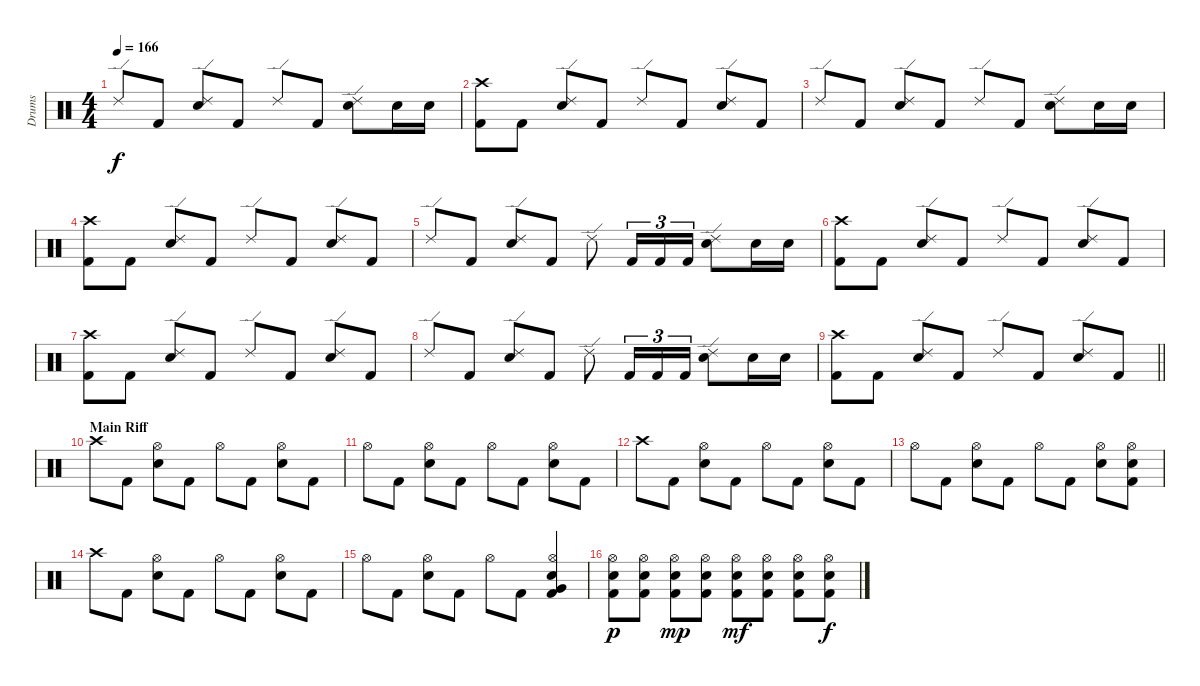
\track ("Drums" "Drums") {instrument percussion}
\staff {score}
\articulation defaults
\ts (4 4)
\tempo 166
\clef neutral
\ks c "Ride (edge) 2".8{dy f} "Kick (hit) 2".8
("Ride (edge) 2" "Electric Snare (hit)").8 "Kick (hit) 2".8 "Ride (edge) 2".8 "Kick (hit) 2".8 ("Ride (edge) 2" "Electric Snare (hit)").8 "Electric Snare (hit)".16 "Electric Snare (hit)".16 |
("Crash high (hit)" "Kick (hit) 2").8 "Kick (hit) 2".8 ("Ride (edge) 2" "Electric Snare (hit)").8 "Kick (hit) 2".8 "Ride (edge) 2".8 "Kick (hit) 2".8 ("Ride (edge) 2" "Electric Snare (hit)").8 "Kick (hit) 2".8 |
"Ride (edge) 2".8 "Kick (hit) 2".8 ("Ride (edge) 2" "Electric Snare (hit)").8 "Kick (hit) 2".8 "Ride (edge) 2".8 "Kick (hit) 2".8 ("Ride (edge) 2" "Electric Snare (hit)").8 "Electric Snare (hit)".16 "Electric Snare (hit)".16 |
("Crash high (hit)" "Kick (hit) 2").8 "Kick (hit) 2".8 ("Ride (edge) 2" "Electric Snare (hit)").8 "Kick (hit) 2".8 "Ride (edge) 2".8 "Kick (hit) 2".8 ("Ride (edge) 2" "Electric Snare (hit)").8 "Kick (hit) 2".8 |
"Ride (edge) 2".8 "Kick (hit) 2".8 ("Ride (edge) 2" "Electric Snare (hit)").8 "Kick (hit) 2".8 "Ride (edge) 2".8 "Kick (hit) 2".16{tu (3 2)} "Kick (hit) 2".16{tu (3 2)} "Kick (hit) 2".16{tu (3 2)} ("Ride (edge) 2" "Electric Snare (hit)").8 "Electric Snare (hit)".16 "Electric Snare (hit)".16 |
("Crash high (hit)" "Kick (hit) 2").8 "Kick (hit) 2".8 ("Ride (edge) 2" "Electric Snare (hit)").8 "Kick (hit) 2".8 "Ride (edge) 2".8 "Kick (hit) 2".8 ("Ride (edge) 2" "Electric Snare (hit)").8 "Kick (hit) 2".8 |
("Crash high (hit)" "Kick (hit) 2").8 "Kick (hit) 2".8 ("Ride (edge) 2" "Electric Snare (hit)").8 "Kick (hit) 2".8 "Ride (edge) 2".8 "Kick (hit) 2".8 ("Ride (edge) 2" "Electric Snare (hit)").8 "Kick (hit) 2".8 |
"Ride (edge) 2".8 "Kick (hit) 2".8 ("Ride (edge) 2" "Electric Snare (hit)").8 "Kick (hit) 2".8 "Ride (edge) 2".8 "Kick (hit) 2".16{tu (3 2)} "Kick (hit) 2".16{tu (3 2)} "Kick (hit) 2".16{tu (3 2)} ("Ride (edge) 2" "Electric Snare (hit)").8 "Electric Snare (hit)".16 "Electric Snare (hit)".16 |
\barLineRight lightlight
("Crash high (hit)" "Kick (hit) 2").8 "Kick (hit) 2".8 ("Ride (edge) 2" "Electric Snare (hit)").8 "Kick (hit) 2".8 "Ride (edge) 2".8 "Kick (hit) 2".8 ("Ride (edge) 2" "Electric Snare (hit)").8 "Kick (hit) 2".8 |
\section ("" "Main Riff")
"Crash high (hit)".8 "Kick (hit) 2".8 ("Hi-Hat (open)" "Electric Snare (hit)").8 "Kick (hit) 2".8 "Hi-Hat (open)".8 "Kick (hit) 2".8 ("Hi-Hat (open)" "Electric Snare (hit)").8 "Kick (hit) 2".8 |
"Hi-Hat (open)".8 "Kick (hit) 2".8 ("Hi-Hat (open)" "Electric Snare (hit)").8 "Kick (hit) 2".8 "Hi-Hat (open)".8 "Kick (hit) 2".8 ("Hi-Hat (open)" "Electric Snare (hit)").8 "Kick (hit) 2".8 |
"Crash high (hit)".8 "Kick (hit) 2".8 ("Hi-Hat (open)" "Electric Snare (hit)").8 "Kick (hit) 2".8 "Hi-Hat (open)".8 "Kick (hit) 2".8 ("Hi-Hat (open)" "Electric Snare (hit)").8 "Kick (hit) 2".8 |
"Hi-Hat (open)".8 "Kick (hit) 2".8 ("Hi-Hat (open)" "Electric Snare (hit)").8 "Kick (hit) 2".8 "Hi-Hat (open)".8 "Kick (hit) 2".8 ("Hi-Hat (open)" "Electric Snare (hit)").8 ("Hi-Hat (open)" "Electric Snare (hit)" "Kick (hit) 2").8 |
"Crash high (hit)".8 "Kick (hit) 2".8 ("Hi-Hat (open)" "Electric Snare (hit)").8 "Kick (hit) 2".8 "Hi-Hat (open)".8 "Kick (hit) 2".8 ("Hi-Hat (open)" "Electric Snare (hit)").8 "Kick (hit) 2".8 |
"Hi-Hat (open)".8 "Kick (hit) 2".8 ("Hi-Hat (open)" "Electric Snare (hit)").8 "Kick (hit) 2".8 "Hi-Hat (open)".8 "Kick (hit) 2".8 ("Hi-Hat (open)" "Electric Snare (hit)" "Very Low Tom (hit)" "Kick (hit) 2").4 |
("Hi-Hat (open)" "Electric Snare (hit)" "Kick (hit) 2").8{dy p} ("Hi-Hat (open)" "Electric Snare (hit)" "Kick (hit) 2").8 ("Hi-Hat (open)" "Electric Snare (hit)" "Kick (hit) 2").8{dy mp} ("Hi-Hat (open)" "Electric Snare (hit)" "Kick (hit) 2").8 ("Hi-Hat (open)" "Electric Snare (hit)" "Kick (hit) 2").8{dy mf} ("Hi-Hat (open)" "Electric Snare (hit)" "Kick (hit) 2").8 ("Hi-Hat (open)" "Electric Snare (hit)" "Kick (hit) 2").8 ("Hi-Hat (open)" "Electric Snare (hit)" "Kick (hit) 2").8{dy f}
